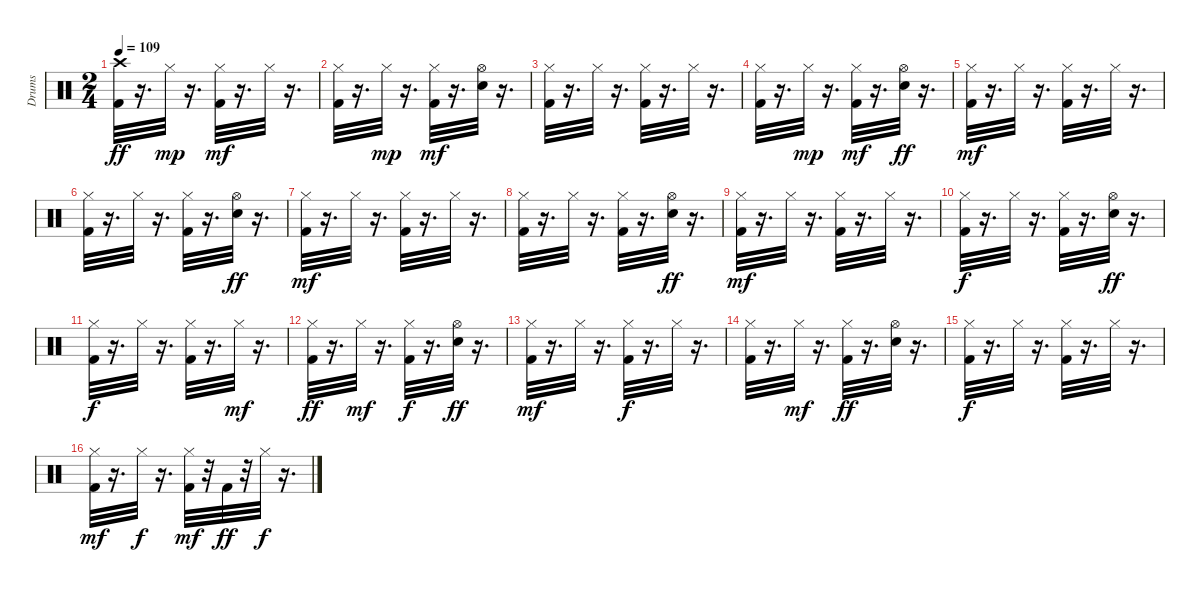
\track ("Drums" "Drums") {solo instrument percussion}
\staff {score}
\articulation defaults
\ts (2 4)
\tempo 109
\clef neutral
\ks c
("Kick (hit) 2" "Crash high (hit)").32{dy ff} r.16{d} "Hi-Hat (closed)".32{dy mp} r.16{d} ("Kick (hit) 2" "Hi-Hat (closed)").32{dy mf} r.16{d} "Hi-Hat (closed)".32 r.16{d} |
("Kick (hit) 2" "Hi-Hat (closed)").32 r.16{d} "Hi-Hat (closed)".32{dy mp} r.16{d} ("Kick (hit) 2" "Hi-Hat (closed)").32{dy mf} r.16{d} ("Hi-Hat (open)" "Electric Snare (hit)").32 r.16{d} |
("Kick (hit) 2" "Hi-Hat (closed)").32 r.16{d} "Hi-Hat (closed)".32 r.16{d} ("Kick (hit) 2" "Hi-Hat (closed)").32 r.16{d} "Hi-Hat (closed)".32 r.16{d} |
("Kick (hit) 2" "Hi-Hat (closed)").32 r.16{d} "Hi-Hat (closed)".32{dy mp} r.16{d} ("Kick (hit) 2" "Hi-Hat (closed)").32{dy mf} r.16{d} ("Electric Snare (hit)" "Hi-Hat (open)").32{dy ff} r.16{d} |
("Hi-Hat (closed)" "Kick (hit) 2").32{dy mf} r.16{d} "Hi-Hat (closed)".32 r.16{d} ("Kick (hit) 2" "Hi-Hat (closed)").32 r.16{d} "Hi-Hat (closed)".32 r.16{d} |
("Kick (hit) 2" "Hi-Hat (closed)").32 r.16{d} "Hi-Hat (closed)".32 r.16{d} ("Kick (hit) 2" "Hi-Hat (closed)").32 r.16{d} ("Electric Snare (hit)" "Hi-Hat (open)").32{dy ff} r.16{d} |
("Hi-Hat (closed)" "Kick (hit) 2").32{dy mf} r.16{d} "Hi-Hat (closed)".32 r.16{d} ("Kick (hit) 2" "Hi-Hat (closed)").32 r.16{d} "Hi-Hat (closed)".32 r.16{d} |
("Kick (hit) 2" "Hi-Hat (closed)").32 r.16{d} "Hi-Hat (closed)".32 r.16{d} ("Kick (hit) 2" "Hi-Hat (closed)").32 r.16{d} ("Electric Snare (hit)" "Hi-Hat (open)").32{dy ff} r.16{d} |
("Hi-Hat (closed)" "Kick (hit) 2").32{dy mf} r.16{d} "Hi-Hat (closed)".32 r.16{d} ("Kick (hit) 2" "Hi-Hat (closed)").32 r.16{d} "Hi-Hat (closed)".32 r.16{d} |
("Kick (hit) 2" "Hi-Hat (closed)").32{dy f} r.16{d} "Hi-Hat (closed)".32 r.16{d} ("Kick (hit) 2" "Hi-Hat (closed)").32 r.16{d} ("Electric Snare (hit)" "Hi-Hat (open)").32{dy ff} r.16{d} |
("Kick (hit) 2" "Hi-Hat (closed)").32{dy f} r.16{d} "Hi-Hat (closed)".32 r.16{d} ("Kick (hit) 2" "Hi-Hat (closed)").32 r.16{d} "Hi-Hat (closed)".32{dy mf} r.16{d} |
("Hi-Hat (closed)" "Kick (hit) 2").32{dy ff} r.16{d} "Hi-Hat (closed)".32{dy mf} r.16{d} ("Kick (hit) 2" "Hi-Hat (closed)").32{dy f} r.16{d} ("Electric Snare (hit)" "Hi-Hat (open)").32{dy ff} r.16{d} |
("Kick (hit) 2" "Hi-Hat (closed)").32{dy mf} r.16{d} "Hi-Hat (closed)".32 r.16{d} ("Kick (hit) 2" "Hi-Hat (closed)").32{dy f} r.16{d} "Hi-Hat (closed)".32 r.16{d} |
("Kick (hit) 2" "Hi-Hat (closed)").32 r.16{d} "Hi-Hat (closed)".32{dy mf} r.16{d} ("Kick (hit) 2" "Hi-Hat (closed)").32{dy ff} r.16{d} ("Electric Snare (hit)" "Hi-Hat (open)").32 r.16{d} |
("Kick (hit) 2" "Hi-Hat (closed)").32{dy f} r.16{d} "Hi-Hat (closed)".32 r.16{d} ("Kick (hit) 2" "Hi-Hat (closed)").32 r.16{d} "Hi-Hat (closed)".32 r.16{d} |
("Kick (hit) 2" "Hi-Hat (closed)").32{dy mf} r.16{d} "Hi-Hat (closed)".32{dy f} r.16{d} ("Kick (hit) 2" "Hi-Hat (closed)").32{dy mf} r.32 "Kick (hit) 2".32{dy ff} r.32 "Hi-Hat (closed)".32{dy f} r.16{d}
